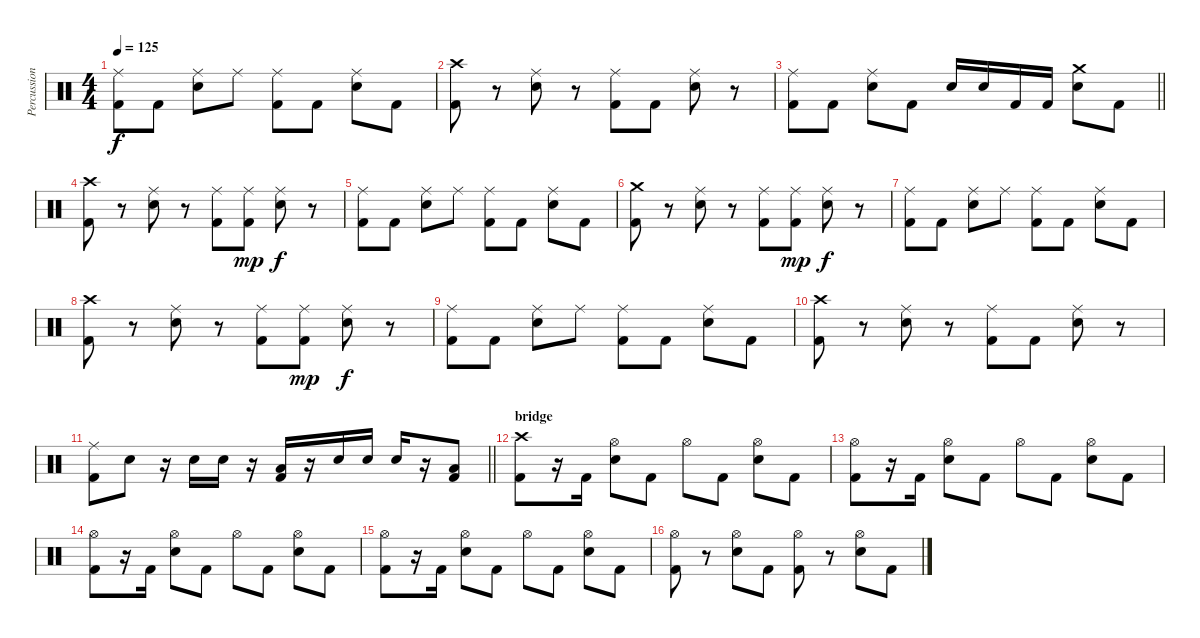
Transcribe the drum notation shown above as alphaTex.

\track ("Percussion" "Percussion") {instrument percussion}
\staff {score}
\articulation defaults
\ts (4 4)
\tempo 125
\clef neutral
\ks c
("Ride (middle)" "Kick (hit) 2").8{dy f} "Kick (hit) 2".8 ("Ride (middle)" "Snare (hit) 2").8 "Ride (middle)".8 ("Ride (middle)" "Kick (hit) 2").8 "Kick (hit) 2".8 ("Ride (middle)" "Snare (hit) 2").8 "Kick (hit) 2".8 |
("Crash high (hit)" "Kick (hit) 2").8 r.8 ("Ride (middle)" "Snare (hit) 2").8 r.8 ("Ride (middle)" "Kick (hit) 2").8 "Kick (hit) 2".8 ("Ride (middle)" "Snare (hit) 2").8 r.8 |
\barLineRight lightlight
("Ride (middle)" "Kick (hit) 2").8 "Kick (hit) 2".8 ("Ride (middle)" "Snare (hit) 2").8 "Kick (hit) 2".8 "Snare (hit) 2".16 "Snare (hit) 2".16 "Kick (hit) 2".16 "Kick (hit) 2".16 ("Crash medium (hit)" "Snare (hit) 2").8 "Kick (hit) 2".8 |
("Crash high (hit)" "Kick (hit) 2").8 r.8 ("Ride (middle)" "Snare (hit) 2").8 r.8 ("Ride (middle)" "Kick (hit) 2").8 ("Ride (middle)" "Kick (hit) 2").8{dy mp} ("Ride (middle)" "Snare (hit) 2").8{dy f} r.8 |
("Ride (middle)" "Kick (hit) 2").8 "Kick (hit) 2".8 ("Ride (middle)" "Snare (hit) 2").8 "Ride (middle)".8 ("Ride (middle)" "Kick (hit) 2").8 "Kick (hit) 2".8 ("Ride (middle)" "Snare (hit) 2").8 "Kick (hit) 2".8 |
("Crash medium (hit)" "Kick (hit) 2").8 r.8 ("Ride (middle)" "Snare (hit) 2").8 r.8 ("Ride (middle)" "Kick (hit) 2").8 ("Ride (middle)" "Kick (hit) 2").8{dy mp} ("Ride (middle)" "Snare (hit) 2").8{dy f} r.8 |
("Ride (middle)" "Kick (hit) 2").8 "Kick (hit) 2".8 ("Ride (middle)" "Snare (hit) 2").8 "Ride (middle)".8 ("Ride (middle)" "Kick (hit) 2").8 "Kick (hit) 2".8 ("Ride (middle)" "Snare (hit) 2").8 "Kick (hit) 2".8 |
("Crash high (hit)" "Kick (hit) 2").8 r.8 ("Ride (middle)" "Snare (hit) 2").8 r.8 ("Ride (middle)" "Kick (hit) 2").8 ("Ride (middle)" "Kick (hit) 2").8{dy mp} ("Ride (middle)" "Snare (hit) 2").8{dy f} r.8 |
("Ride (middle)" "Kick (hit) 2").8 "Kick (hit) 2".8 ("Ride (middle)" "Snare (hit) 2").8 "Ride (middle)".8 ("Ride (middle)" "Kick (hit) 2").8 "Kick (hit) 2".8 ("Ride (middle)" "Snare (hit) 2").8 "Kick (hit) 2".8 |
("Crash high (hit)" "Kick (hit) 2").8 r.8 ("Ride (middle)" "Snare (hit) 2").8 r.8 ("Ride (middle)" "Kick (hit) 2").8 "Kick (hit) 2".8 ("Ride (middle)" "Snare (hit) 2").8 r.8 |
\barLineRight lightlight
("Ride (middle)" "Kick (hit) 2").8 "Snare (hit) 2".8 r.16 "Snare (hit) 2".16 "Snare (hit) 2".16 r.16 ("Low Tom (hit)" "Kick (hit) 2").16 r.16 "Snare (hit) 2".16 "Snare (hit) 2".16 "Snare (hit) 2".16 r.16 ("Low Tom (hit)" "Kick (hit) 2").8 |
\section ("" "bridge")
("Crash high (hit)" "Kick (hit) 2").8 r.16 "Kick (hit) 2".16 ("Hi-Hat (open)" "Snare (hit) 2").8 "Kick (hit) 2".8 "Hi-Hat (open)".8 "Kick (hit) 2".8 ("Hi-Hat (open)" "Snare (hit) 2").8 "Kick (hit) 2".8 |
("Hi-Hat (open)" "Kick (hit) 2").8 r.16 "Kick (hit) 2".16 ("Hi-Hat (open)" "Snare (hit) 2").8 "Kick (hit) 2".8 "Hi-Hat (open)".8 "Kick (hit) 2".8 ("Hi-Hat (open)" "Snare (hit) 2").8 "Kick (hit) 2".8 |
("Hi-Hat (open)" "Kick (hit) 2").8 r.16 "Kick (hit) 2".16 ("Hi-Hat (open)" "Snare (hit) 2").8 "Kick (hit) 2".8 "Hi-Hat (open)".8 "Kick (hit) 2".8 ("Hi-Hat (open)" "Snare (hit) 2").8 "Kick (hit) 2".8 |
("Hi-Hat (open)" "Kick (hit) 2").8 r.16 "Kick (hit) 2".16 ("Hi-Hat (open)" "Snare (hit) 2").8 "Kick (hit) 2".8 "Hi-Hat (open)".8 "Kick (hit) 2".8 ("Hi-Hat (open)" "Snare (hit) 2").8 "Kick (hit) 2".8 |
("Hi-Hat (open)" "Kick (hit) 2").8 r.8 ("Hi-Hat (open)" "Snare (hit) 2").8 "Kick (hit) 2".8 ("Hi-Hat (open)" "Kick (hit) 2").8 r.8 ("Hi-Hat (open)" "Snare (hit) 2").8 "Kick (hit) 2".8
